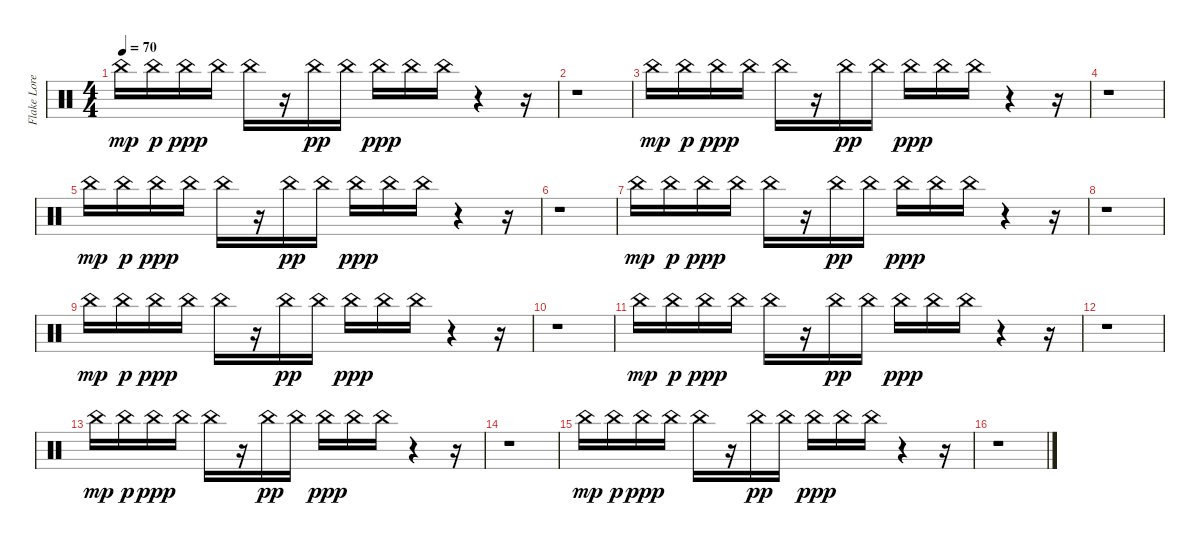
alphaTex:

\track ("Flake Lorenz" "Flake Lore") {instrument percussion}
\staff {score}
\articulation defaults
\ts (4 4)
\tempo 70
\clef neutral
\ks c "China (hit)".16{dy mp} "China (hit)".16{dy p} "China (hit)".16{dy ppp} "China (hit)".16 "China (hit)".16
r.16 "China (hit)".16{dy pp} "China (hit)".16 "China (hit)".16{dy ppp} "China (hit)".16 "China (hit)".16 r.4 r.16 |
r.1 |
"China (hit)".16{dy mp} "China (hit)".16{dy p} "China (hit)".16{dy ppp} "China (hit)".16 "China (hit)".16 r.16 "China (hit)".16{dy pp} "China (hit)".16 "China (hit)".16{dy ppp} "China (hit)".16 "China (hit)".16 r.4 r.16 |
r.1 |
"China (hit)".16{dy mp} "China (hit)".16{dy p} "China (hit)".16{dy ppp} "China (hit)".16 "China (hit)".16 r.16 "China (hit)".16{dy pp} "China (hit)".16 "China (hit)".16{dy ppp} "China (hit)".16 "China (hit)".16 r.4 r.16 |
r.1 |
"China (hit)".16{dy mp} "China (hit)".16{dy p} "China (hit)".16{dy ppp} "China (hit)".16 "China (hit)".16 r.16 "China (hit)".16{dy pp} "China (hit)".16 "China (hit)".16{dy ppp} "China (hit)".16 "China (hit)".16 r.4 r.16 |
r.1 |
"China (hit)".16{dy mp} "China (hit)".16{dy p} "China (hit)".16{dy ppp} "China (hit)".16 "China (hit)".16 r.16 "China (hit)".16{dy pp} "China (hit)".16 "China (hit)".16{dy ppp} "China (hit)".16 "China (hit)".16 r.4 r.16 |
r.1 |
"China (hit)".16{dy mp} "China (hit)".16{dy p} "China (hit)".16{dy ppp} "China (hit)".16 "China (hit)".16 r.16 "China (hit)".16{dy pp} "China (hit)".16 "China (hit)".16{dy ppp} "China (hit)".16 "China (hit)".16 r.4 r.16 |
r.1 |
"China (hit)".16{dy mp} "China (hit)".16{dy p} "China (hit)".16{dy ppp} "China (hit)".16 "China (hit)".16 r.16 "China (hit)".16{dy pp} "China (hit)".16 "China (hit)".16{dy ppp} "China (hit)".16 "China (hit)".16 r.4 r.16 |
r.1 |
"China (hit)".16{dy mp} "China (hit)".16{dy p} "China (hit)".16{dy ppp} "China (hit)".16 "China (hit)".16 r.16 "China (hit)".16{dy pp} "China (hit)".16 "China (hit)".16{dy ppp} "China (hit)".16 "China (hit)".16 r.4 r.16 |
r.1
